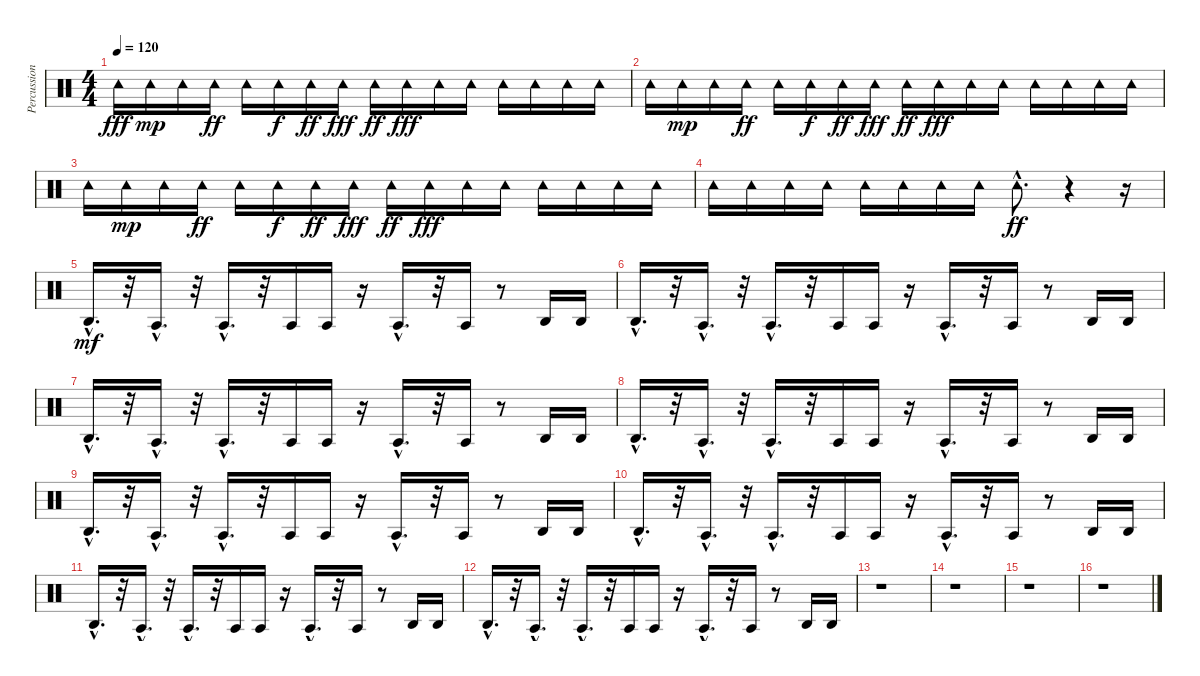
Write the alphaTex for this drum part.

\track ("Percussion" "Percussion") {instrument percussion}
\staff {score}
\articulation defaults
\ts (4 4)
\tempo 120
\clef neutral
\ks c "Tambourine (hit)".16{dy fff} "Tambourine (hit)".16{dy mp} "Tambourine (hit)".16 "Tambourine (hit)".16{dy ff} "Tambourine (hit)".16 "Tambourine (hit)".16{dy f} "Tambourine (hit)".16{dy ff} "Tambourine (hit)".16{dy fff} "Tambourine (hit)".16{dy ff} "Tambourine (hit)".16{dy fff} "Tambourine (hit)".16 "Tambourine (hit)".16 "Tambourine (hit)".16 "Tambourine (hit)".16 "Tambourine (hit)".16 "Tambourine (hit)".16
|
"Tambourine (hit)".16 "Tambourine (hit)".16{dy mp} "Tambourine (hit)".16 "Tambourine (hit)".16{dy ff} "Tambourine (hit)".16 "Tambourine (hit)".16{dy f} "Tambourine (hit)".16{dy ff} "Tambourine (hit)".16{dy fff} "Tambourine (hit)".16{dy ff} "Tambourine (hit)".16{dy fff} "Tambourine (hit)".16 "Tambourine (hit)".16 "Tambourine (hit)".16 "Tambourine (hit)".16 "Tambourine (hit)".16 "Tambourine (hit)".16 |
"Tambourine (hit)".16 "Tambourine (hit)".16{dy mp} "Tambourine (hit)".16 "Tambourine (hit)".16{dy ff} "Tambourine (hit)".16 "Tambourine (hit)".16{dy f} "Tambourine (hit)".16{dy ff} "Tambourine (hit)".16{dy fff} "Tambourine (hit)".16{dy ff} "Tambourine (hit)".16{dy fff} "Tambourine (hit)".16 "Tambourine (hit)".16 "Tambourine (hit)".16 "Tambourine (hit)".16 "Tambourine (hit)".16 "Tambourine (hit)".16 |
"Tambourine (hit)".16 "Tambourine (hit)".16 "Tambourine (hit)".16 "Tambourine (hit)".16 "Tambourine (hit)".16 "Tambourine (hit)".16 "Tambourine (hit)".16 "Tambourine (hit)".16 "Tambourine (hit)"{hac}.8{d dy ff} r.4 r.16 |
"Agogo high (hit)"{hac}.16{d dy mf} r.32 "Agogo tow (hit)"{hac}.16{d} r.32 "Agogo tow (hit)"{hac}.16{d} r.32 "Agogo tow (hit)".16 "Agogo tow (hit)".16 r.16 "Agogo tow (hit)"{hac}.16{d} r.32 "Agogo tow (hit)".16 r.8 "Agogo high (hit)".16 "Agogo high (hit)".16 |
"Agogo high (hit)"{hac}.16{d} r.32 "Agogo tow (hit)"{hac}.16{d} r.32 "Agogo tow (hit)"{hac}.16{d} r.32 "Agogo tow (hit)".16 "Agogo tow (hit)".16 r.16 "Agogo tow (hit)"{hac}.16{d} r.32 "Agogo tow (hit)".16 r.8 "Agogo high (hit)".16 "Agogo high (hit)".16 |
"Agogo high (hit)"{hac}.16{d} r.32 "Agogo tow (hit)"{hac}.16{d} r.32 "Agogo tow (hit)"{hac}.16{d} r.32 "Agogo tow (hit)".16 "Agogo tow (hit)".16 r.16 "Agogo tow (hit)"{hac}.16{d} r.32 "Agogo tow (hit)".16 r.8 "Agogo high (hit)".16 "Agogo high (hit)".16 |
"Agogo high (hit)"{hac}.16{d} r.32 "Agogo tow (hit)"{hac}.16{d} r.32 "Agogo tow (hit)"{hac}.16{d} r.32 "Agogo tow (hit)".16 "Agogo tow (hit)".16 r.16 "Agogo tow (hit)"{hac}.16{d} r.32 "Agogo tow (hit)".16 r.8 "Agogo high (hit)".16 "Agogo high (hit)".16 |
"Agogo high (hit)"{hac}.16{d} r.32 "Agogo tow (hit)"{hac}.16{d} r.32 "Agogo tow (hit)"{hac}.16{d} r.32 "Agogo tow (hit)".16 "Agogo tow (hit)".16 r.16 "Agogo tow (hit)"{hac}.16{d} r.32 "Agogo tow (hit)".16 r.8 "Agogo high (hit)".16 "Agogo high (hit)".16 |
"Agogo high (hit)"{hac}.16{d} r.32 "Agogo tow (hit)"{hac}.16{d} r.32 "Agogo tow (hit)"{hac}.16{d} r.32 "Agogo tow (hit)".16 "Agogo tow (hit)".16 r.16 "Agogo tow (hit)"{hac}.16{d} r.32 "Agogo tow (hit)".16 r.8 "Agogo high (hit)".16 "Agogo high (hit)".16 |
"Agogo high (hit)"{hac}.16{d} r.32 "Agogo tow (hit)"{hac}.16{d} r.32 "Agogo tow (hit)"{hac}.16{d} r.32 "Agogo tow (hit)".16 "Agogo tow (hit)".16 r.16 "Agogo tow (hit)"{hac}.16{d} r.32 "Agogo tow (hit)".16 r.8 "Agogo high (hit)".16 "Agogo high (hit)".16 |
"Agogo high (hit)"{hac}.16{d} r.32 "Agogo tow (hit)"{hac}.16{d} r.32 "Agogo tow (hit)"{hac}.16{d} r.32 "Agogo tow (hit)".16 "Agogo tow (hit)".16 r.16 "Agogo tow (hit)"{hac}.16{d} r.32 "Agogo tow (hit)".16 r.8 "Agogo high (hit)".16 "Agogo high (hit)".16 |
r.1 |
r.1 |
r.1 |
r.1
